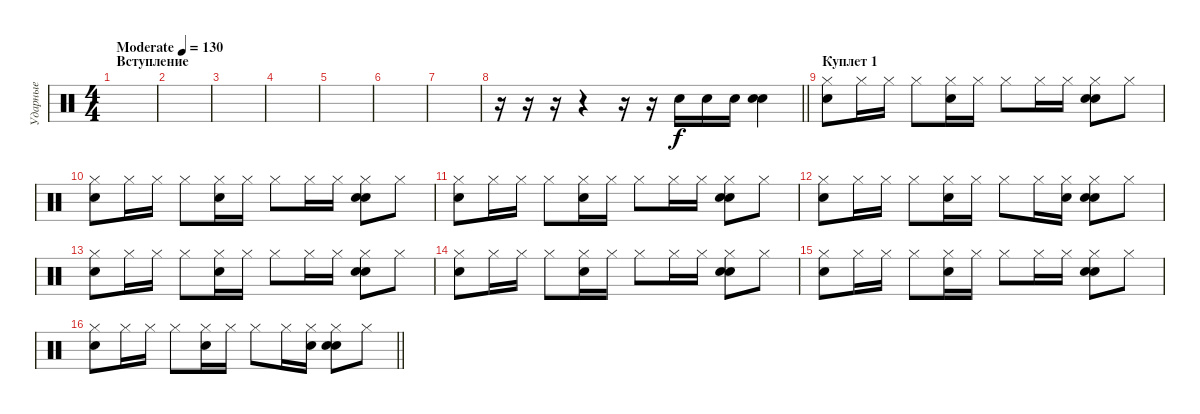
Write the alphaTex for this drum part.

\track ("Ударные" "Ударные") {instrument percussion}
\staff {score}
\articulation defaults
\ts (4 4)
\section ("" "Вступление")
\tempo (130 "Moderate")
\clef neutral
\ks c
|
|
|
|
|
|
|
\barLineRight lightlight
r.16 r.16 r.16 r.4 r.16 r.16 "Snare (hit) 2".16 "Snare (hit) 2".16 "Snare (hit) 2".16 ("Electric Snare (hit)" "Snare (hit) 2").4 |
\section ("" "Куплет 1")
("Hi-Hat (closed)" "Snare (hit) 2").8 "Hi-Hat (closed)".16 "Hi-Hat (closed)".16 "Hi-Hat (closed)".8 ("Hi-Hat (closed)" "Snare (hit) 2").16 "Hi-Hat (closed)".16 "Hi-Hat (closed)".8 "Hi-Hat (closed)".16 "Hi-Hat (closed)".16 ("Hi-Hat (closed)" "Snare (hit) 2" "Electric Snare (hit)").8 "Hi-Hat (closed)".8 |
("Hi-Hat (closed)" "Snare (hit) 2").8 "Hi-Hat (closed)".16 "Hi-Hat (closed)".16 "Hi-Hat (closed)".8 ("Hi-Hat (closed)" "Snare (hit) 2").16 "Hi-Hat (closed)".16 "Hi-Hat (closed)".8 "Hi-Hat (closed)".16 "Hi-Hat (closed)".16 ("Hi-Hat (closed)" "Snare (hit) 2" "Electric Snare (hit)").8 "Hi-Hat (closed)".8 |
("Hi-Hat (closed)" "Snare (hit) 2").8 "Hi-Hat (closed)".16 "Hi-Hat (closed)".16 "Hi-Hat (closed)".8 ("Hi-Hat (closed)" "Snare (hit) 2").16 "Hi-Hat (closed)".16 "Hi-Hat (closed)".8 "Hi-Hat (closed)".16 "Hi-Hat (closed)".16 ("Hi-Hat (closed)" "Snare (hit) 2" "Electric Snare (hit)").8 "Hi-Hat (closed)".8 |
("Hi-Hat (closed)" "Snare (hit) 2").8 "Hi-Hat (closed)".16 "Hi-Hat (closed)".16 "Hi-Hat (closed)".8 ("Hi-Hat (closed)" "Snare (hit) 2").16 "Hi-Hat (closed)".16 "Hi-Hat (closed)".8 "Hi-Hat (closed)".16 ("Hi-Hat (closed)" "Electric Snare (hit)").16 ("Hi-Hat (closed)" "Snare (hit) 2" "Electric Snare (hit)").8 "Hi-Hat (closed)".8 |
("Hi-Hat (closed)" "Snare (hit) 2").8 "Hi-Hat (closed)".16 "Hi-Hat (closed)".16 "Hi-Hat (closed)".8 ("Hi-Hat (closed)" "Snare (hit) 2").16 "Hi-Hat (closed)".16 "Hi-Hat (closed)".8 "Hi-Hat (closed)".16 "Hi-Hat (closed)".16 ("Hi-Hat (closed)" "Snare (hit) 2" "Electric Snare (hit)").8 "Hi-Hat (closed)".8 |
("Hi-Hat (closed)" "Snare (hit) 2").8 "Hi-Hat (closed)".16 "Hi-Hat (closed)".16 "Hi-Hat (closed)".8 ("Hi-Hat (closed)" "Snare (hit) 2").16 "Hi-Hat (closed)".16 "Hi-Hat (closed)".8 "Hi-Hat (closed)".16 "Hi-Hat (closed)".16 ("Hi-Hat (closed)" "Snare (hit) 2" "Electric Snare (hit)").8 "Hi-Hat (closed)".8 |
("Hi-Hat (closed)" "Snare (hit) 2").8 "Hi-Hat (closed)".16 "Hi-Hat (closed)".16 "Hi-Hat (closed)".8 ("Hi-Hat (closed)" "Snare (hit) 2").16 "Hi-Hat (closed)".16 "Hi-Hat (closed)".8 "Hi-Hat (closed)".16 "Hi-Hat (closed)".16 ("Hi-Hat (closed)" "Snare (hit) 2" "Electric Snare (hit)").8 "Hi-Hat (closed)".8 |
\barLineRight lightlight
("Hi-Hat (closed)" "Snare (hit) 2").8 "Hi-Hat (closed)".16 "Hi-Hat (closed)".16 "Hi-Hat (closed)".8 ("Hi-Hat (closed)" "Snare (hit) 2").16 "Hi-Hat (closed)".16 "Hi-Hat (closed)".8 "Hi-Hat (closed)".16 ("Hi-Hat (closed)" "Electric Snare (hit)").16 ("Hi-Hat (closed)" "Snare (hit) 2" "Electric Snare (hit)").8 "Hi-Hat (closed)".8
